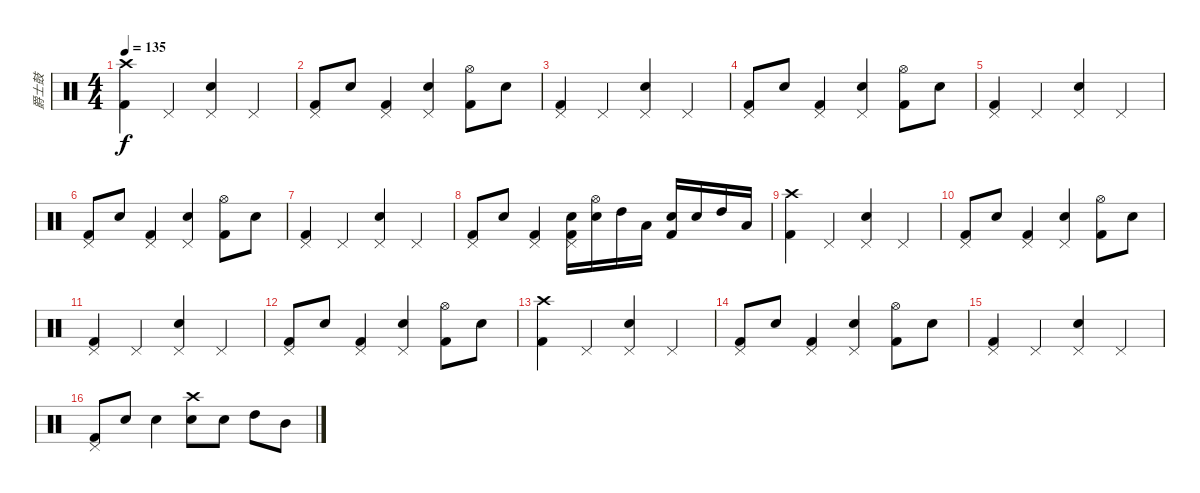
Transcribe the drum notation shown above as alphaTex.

\track ("爵士鼓" "爵士鼓") {instrument percussion}
\staff {score}
\articulation defaults
\ts (4 4)
\tempo 135
\clef neutral
\ks c
("Crash high (hit)" "Kick (hit) 2").4{dy f} "Pedal Hi-Hat (hit)".4 ("Pedal Hi-Hat (hit)" "Snare (hit) 2").4 "Pedal Hi-Hat (hit)".4 |
("Pedal Hi-Hat (hit)" "Kick (hit) 2").8 "Snare (hit) 2".8 ("Pedal Hi-Hat (hit)" "Kick (hit) 2").4 ("Pedal Hi-Hat (hit)" "Snare (hit) 2").4 ("Hi-Hat (open)" "Kick (hit) 2").8 "Snare (hit) 2".8 |
("Pedal Hi-Hat (hit)" "Kick (hit) 2").4 "Pedal Hi-Hat (hit)".4 ("Pedal Hi-Hat (hit)" "Snare (hit) 2").4 "Pedal Hi-Hat (hit)".4 |
("Pedal Hi-Hat (hit)" "Kick (hit) 2").8 "Snare (hit) 2".8 ("Pedal Hi-Hat (hit)" "Kick (hit) 2").4 ("Pedal Hi-Hat (hit)" "Snare (hit) 2").4 ("Hi-Hat (open)" "Kick (hit) 2").8 "Snare (hit) 2".8 |
("Pedal Hi-Hat (hit)" "Kick (hit) 2").4 "Pedal Hi-Hat (hit)".4 ("Pedal Hi-Hat (hit)" "Snare (hit) 2").4 "Pedal Hi-Hat (hit)".4 |
("Pedal Hi-Hat (hit)" "Kick (hit) 2").8 "Snare (hit) 2".8 ("Pedal Hi-Hat (hit)" "Kick (hit) 2").4 ("Pedal Hi-Hat (hit)" "Snare (hit) 2").4 ("Hi-Hat (open)" "Kick (hit) 2").8 "Snare (hit) 2".8 |
("Pedal Hi-Hat (hit)" "Kick (hit) 2").4 "Pedal Hi-Hat (hit)".4 ("Pedal Hi-Hat (hit)" "Snare (hit) 2").4 "Pedal Hi-Hat (hit)".4 |
("Pedal Hi-Hat (hit)" "Kick (hit) 2").8 "Snare (hit) 2".8 ("Pedal Hi-Hat (hit)" "Kick (hit) 2").4 ("Pedal Hi-Hat (hit)" "Electric Snare (hit)" "Kick (hit) 2").16 ("Hi-Hat (open)" "Snare (hit) 2").16 "High Tom (hit)".16 "Low Tom (hit)".16 ("Electric Snare (hit)" "Kick (hit) 2").16 "Snare (hit) 2".16 "High Tom (hit)".16 "Low Tom (hit)".16 |
("Crash high (hit)" "Kick (hit) 2").4 "Pedal Hi-Hat (hit)".4 ("Pedal Hi-Hat (hit)" "Snare (hit) 2").4 "Pedal Hi-Hat (hit)".4 |
("Pedal Hi-Hat (hit)" "Kick (hit) 2").8 "Snare (hit) 2".8 ("Pedal Hi-Hat (hit)" "Kick (hit) 2").4 ("Pedal Hi-Hat (hit)" "Snare (hit) 2").4 ("Hi-Hat (open)" "Kick (hit) 2").8 "Snare (hit) 2".8 |
("Pedal Hi-Hat (hit)" "Kick (hit) 2").4 "Pedal Hi-Hat (hit)".4 ("Pedal Hi-Hat (hit)" "Snare (hit) 2").4 "Pedal Hi-Hat (hit)".4 |
("Pedal Hi-Hat (hit)" "Kick (hit) 2").8 "Snare (hit) 2".8 ("Pedal Hi-Hat (hit)" "Kick (hit) 2").4 ("Pedal Hi-Hat (hit)" "Snare (hit) 2").4 ("Hi-Hat (open)" "Kick (hit) 2").8 "Snare (hit) 2".8 |
("Crash high (hit)" "Kick (hit) 2").4 "Pedal Hi-Hat (hit)".4 ("Pedal Hi-Hat (hit)" "Snare (hit) 2").4 "Pedal Hi-Hat (hit)".4 |
("Pedal Hi-Hat (hit)" "Kick (hit) 2").8 "Snare (hit) 2".8 ("Pedal Hi-Hat (hit)" "Kick (hit) 2").4 ("Pedal Hi-Hat (hit)" "Snare (hit) 2").4 ("Hi-Hat (open)" "Kick (hit) 2").8 "Snare (hit) 2".8 |
("Pedal Hi-Hat (hit)" "Kick (hit) 2").4 "Pedal Hi-Hat (hit)".4 ("Pedal Hi-Hat (hit)" "Snare (hit) 2").4 "Pedal Hi-Hat (hit)".4 |
("Pedal Hi-Hat (hit)" "Kick (hit) 2").8 "Electric Snare (hit)".8 "Electric Snare (hit)".4 ("Crash high (hit)" "Snare (hit) 2").8 "Snare (hit) 2".8 "High Tom (hit)".8 "Mid Tom (hit)".8
